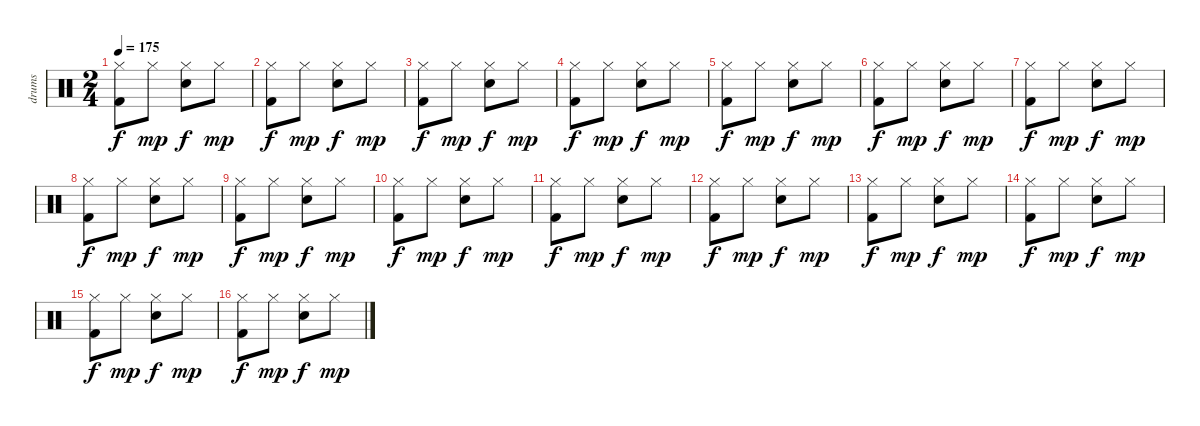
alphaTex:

\track ("drums" "drums") {instrument percussion}
\staff {score}
\articulation defaults
\ts (2 4)
\tempo 175
\clef neutral
\ks c
("Hi-Hat (closed)" "Kick (hit) 2").8{dy f} "Hi-Hat (closed)".8{dy mp} ("Hi-Hat (closed)" "Snare (hit) 2").8{dy f} "Hi-Hat (closed)".8{dy mp} |
("Hi-Hat (closed)" "Kick (hit) 2").8{dy f} "Hi-Hat (closed)".8{dy mp} ("Hi-Hat (closed)" "Snare (hit) 2").8{dy f} "Hi-Hat (closed)".8{dy mp} |
("Hi-Hat (closed)" "Kick (hit) 2").8{dy f} "Hi-Hat (closed)".8{dy mp} ("Hi-Hat (closed)" "Snare (hit) 2").8{dy f} "Hi-Hat (closed)".8{dy mp} |
("Hi-Hat (closed)" "Kick (hit) 2").8{dy f} "Hi-Hat (closed)".8{dy mp} ("Hi-Hat (closed)" "Snare (hit) 2").8{dy f} "Hi-Hat (closed)".8{dy mp} |
("Hi-Hat (closed)" "Kick (hit) 2").8{dy f} "Hi-Hat (closed)".8{dy mp} ("Hi-Hat (closed)" "Snare (hit) 2").8{dy f} "Hi-Hat (closed)".8{dy mp} |
("Hi-Hat (closed)" "Kick (hit) 2").8{dy f} "Hi-Hat (closed)".8{dy mp} ("Hi-Hat (closed)" "Snare (hit) 2").8{dy f} "Hi-Hat (closed)".8{dy mp} |
("Hi-Hat (closed)" "Kick (hit) 2").8{dy f} "Hi-Hat (closed)".8{dy mp} ("Hi-Hat (closed)" "Snare (hit) 2").8{dy f} "Hi-Hat (closed)".8{dy mp} |
("Hi-Hat (closed)" "Kick (hit) 2").8{dy f} "Hi-Hat (closed)".8{dy mp} ("Hi-Hat (closed)" "Snare (hit) 2").8{dy f} "Hi-Hat (closed)".8{dy mp} |
("Hi-Hat (closed)" "Kick (hit) 2").8{dy f} "Hi-Hat (closed)".8{dy mp} ("Hi-Hat (closed)" "Snare (hit) 2").8{dy f} "Hi-Hat (closed)".8{dy mp} |
("Hi-Hat (closed)" "Kick (hit) 2").8{dy f} "Hi-Hat (closed)".8{dy mp} ("Hi-Hat (closed)" "Snare (hit) 2").8{dy f} "Hi-Hat (closed)".8{dy mp} |
("Hi-Hat (closed)" "Kick (hit) 2").8{dy f} "Hi-Hat (closed)".8{dy mp} ("Hi-Hat (closed)" "Snare (hit) 2").8{dy f} "Hi-Hat (closed)".8{dy mp} |
("Hi-Hat (closed)" "Kick (hit) 2").8{dy f} "Hi-Hat (closed)".8{dy mp} ("Hi-Hat (closed)" "Snare (hit) 2").8{dy f} "Hi-Hat (closed)".8{dy mp} |
("Hi-Hat (closed)" "Kick (hit) 2").8{dy f} "Hi-Hat (closed)".8{dy mp} ("Hi-Hat (closed)" "Snare (hit) 2").8{dy f} "Hi-Hat (closed)".8{dy mp} |
("Hi-Hat (closed)" "Kick (hit) 2").8{dy f} "Hi-Hat (closed)".8{dy mp} ("Hi-Hat (closed)" "Snare (hit) 2").8{dy f} "Hi-Hat (closed)".8{dy mp} |
("Hi-Hat (closed)" "Kick (hit) 2").8{dy f} "Hi-Hat (closed)".8{dy mp} ("Hi-Hat (closed)" "Snare (hit) 2").8{dy f} "Hi-Hat (closed)".8{dy mp} |
("Hi-Hat (closed)" "Kick (hit) 2").8{dy f} "Hi-Hat (closed)".8{dy mp} ("Hi-Hat (closed)" "Snare (hit) 2").8{dy f} "Hi-Hat (closed)".8{dy mp}
